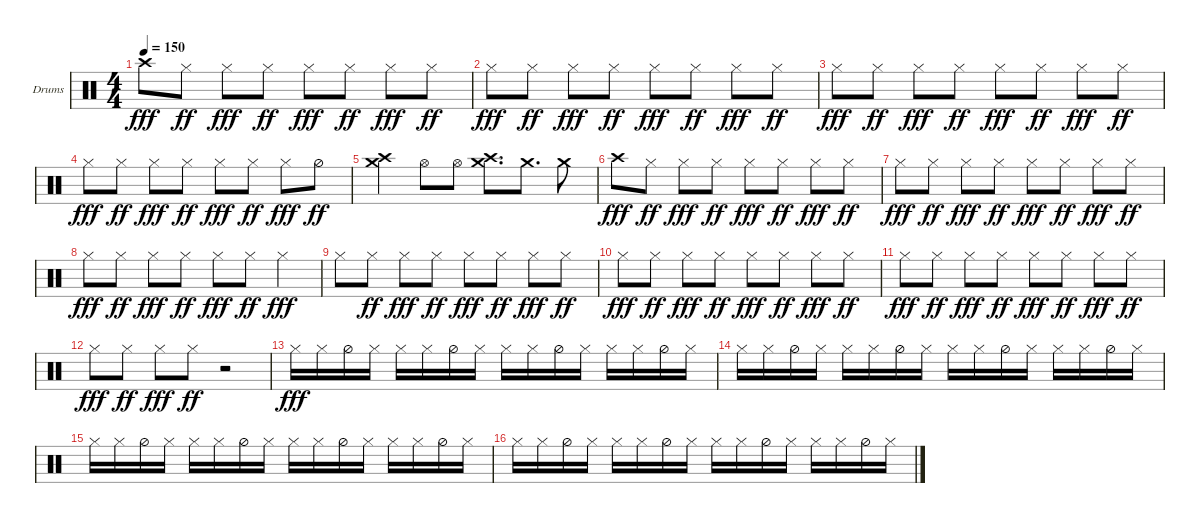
\defaultSystemsLayout 4
\bracketExtendMode groupsimilarinstruments
\firstSystemTrackNameOrientation horizontal
\otherSystemsTrackNameOrientation horizontal
\track ("Helders" "Drums") {instrument percussion}
\staff {score}
\articulation defaults
\ts (4 4)
\tempo 150
\clef neutral
\ks c "Crash high (hit)".8{dy fff} "Hi-Hat (closed)".8{dy ff} "Hi-Hat (closed)".8{dy fff} "Hi-Hat (closed)".8{dy ff} "Hi-Hat (closed)".8{dy fff} "Hi-Hat (closed)".8{dy ff} "Hi-Hat (closed)".8{dy fff} "Hi-Hat (closed)".8{dy ff}
|
"Hi-Hat (closed)".8{dy fff} "Hi-Hat (closed)".8{dy ff} "Hi-Hat (closed)".8{dy fff} "Hi-Hat (closed)".8{dy ff} "Hi-Hat (closed)".8{dy fff} "Hi-Hat (closed)".8{dy ff} "Hi-Hat (closed)".8{dy fff} "Hi-Hat (closed)".8{dy ff} |
"Hi-Hat (closed)".8{dy fff} "Hi-Hat (closed)".8{dy ff} "Hi-Hat (closed)".8{dy fff} "Hi-Hat (closed)".8{dy ff} "Hi-Hat (closed)".8{dy fff} "Hi-Hat (closed)".8{dy ff} "Hi-Hat (closed)".8{dy fff} "Hi-Hat (closed)".8{dy ff} |
"Hi-Hat (closed)".8{dy fff} "Hi-Hat (closed)".8{dy ff} "Hi-Hat (closed)".8{dy fff} "Hi-Hat (closed)".8{dy ff} "Hi-Hat (closed)".8{dy fff} "Hi-Hat (closed)".8{dy ff} "Hi-Hat (closed)".8{dy fff} "Hi-Hat (half)".8{dy ff} |
("Crash high (hit)" "Crash medium (hit)").4 "Hi-Hat (open)".8 "Hi-Hat (open)".8 ("Crash high (hit)" "Crash medium (hit)").8{d} "Crash medium (hit)".8{d} "Crash medium (hit)".8 |
"Crash high (hit)".8{dy fff} "Hi-Hat (closed)".8{dy ff} "Hi-Hat (closed)".8{dy fff} "Hi-Hat (closed)".8{dy ff} "Hi-Hat (closed)".8{dy fff} "Hi-Hat (closed)".8{dy ff} "Hi-Hat (closed)".8{dy fff} "Hi-Hat (closed)".8{dy ff} |
"Hi-Hat (closed)".8{dy fff} "Hi-Hat (closed)".8{dy ff} "Hi-Hat (closed)".8{dy fff} "Hi-Hat (closed)".8{dy ff} "Hi-Hat (closed)".8{dy fff} "Hi-Hat (closed)".8{dy ff} "Hi-Hat (closed)".8{dy fff} "Hi-Hat (closed)".8{dy ff} |
"Hi-Hat (closed)".8{dy fff} "Hi-Hat (closed)".8{dy ff} "Hi-Hat (closed)".8{dy fff} "Hi-Hat (closed)".8{dy ff} "Hi-Hat (closed)".8{dy fff} "Hi-Hat (closed)".8{dy ff} "Hi-Hat (closed)".4{dy fff} |
"Hi-Hat (closed)".8 "Hi-Hat (closed)".8{dy ff} "Hi-Hat (closed)".8{dy fff} "Hi-Hat (closed)".8{dy ff} "Hi-Hat (closed)".8{dy fff} "Hi-Hat (closed)".8{dy ff} "Hi-Hat (closed)".8{dy fff} "Hi-Hat (closed)".8{dy ff} |
"Hi-Hat (closed)".8{dy fff} "Hi-Hat (closed)".8{dy ff} "Hi-Hat (closed)".8{dy fff} "Hi-Hat (closed)".8{dy ff} "Hi-Hat (closed)".8{dy fff} "Hi-Hat (closed)".8{dy ff} "Hi-Hat (closed)".8{dy fff} "Hi-Hat (closed)".8{dy ff} |
"Hi-Hat (closed)".8{dy fff} "Hi-Hat (closed)".8{dy ff} "Hi-Hat (closed)".8{dy fff} "Hi-Hat (closed)".8{dy ff} "Hi-Hat (closed)".8{dy fff} "Hi-Hat (closed)".8{dy ff} "Hi-Hat (closed)".8{dy fff} "Hi-Hat (closed)".8{dy ff} |
"Hi-Hat (closed)".8{dy fff} "Hi-Hat (closed)".8{dy ff} "Hi-Hat (closed)".8{dy fff} "Hi-Hat (closed)".8{dy ff} r.2 |
"Hi-Hat (closed)".16{dy fff} "Hi-Hat (closed)".16 "Hi-Hat (half)".16 "Hi-Hat (closed)".16 "Hi-Hat (closed)".16 "Hi-Hat (closed)".16 "Hi-Hat (half)".16 "Hi-Hat (closed)".16 "Hi-Hat (closed)".16 "Hi-Hat (closed)".16 "Hi-Hat (half)".16 "Hi-Hat (closed)".16 "Hi-Hat (closed)".16 "Hi-Hat (closed)".16 "Hi-Hat (half)".16 "Hi-Hat (closed)".16 |
"Hi-Hat (closed)".16 "Hi-Hat (closed)".16 "Hi-Hat (half)".16 "Hi-Hat (closed)".16 "Hi-Hat (closed)".16 "Hi-Hat (closed)".16 "Hi-Hat (half)".16 "Hi-Hat (closed)".16 "Hi-Hat (closed)".16 "Hi-Hat (closed)".16 "Hi-Hat (half)".16 "Hi-Hat (closed)".16 "Hi-Hat (closed)".16 "Hi-Hat (closed)".16 "Hi-Hat (half)".16 "Hi-Hat (closed)".16 |
"Hi-Hat (closed)".16 "Hi-Hat (closed)".16 "Hi-Hat (half)".16 "Hi-Hat (closed)".16 "Hi-Hat (closed)".16 "Hi-Hat (closed)".16 "Hi-Hat (half)".16 "Hi-Hat (closed)".16 "Hi-Hat (closed)".16 "Hi-Hat (closed)".16 "Hi-Hat (half)".16 "Hi-Hat (closed)".16 "Hi-Hat (closed)".16 "Hi-Hat (closed)".16 "Hi-Hat (half)".16 "Hi-Hat (closed)".16 |
"Hi-Hat (closed)".16 "Hi-Hat (closed)".16 "Hi-Hat (half)".16 "Hi-Hat (closed)".16 "Hi-Hat (closed)".16 "Hi-Hat (closed)".16 "Hi-Hat (half)".16 "Hi-Hat (closed)".16 "Hi-Hat (closed)".16 "Hi-Hat (closed)".16 "Hi-Hat (half)".16 "Hi-Hat (closed)".16 "Hi-Hat (closed)".16 "Hi-Hat (closed)".16 "Hi-Hat (half)".16 "Hi-Hat (closed)".16
